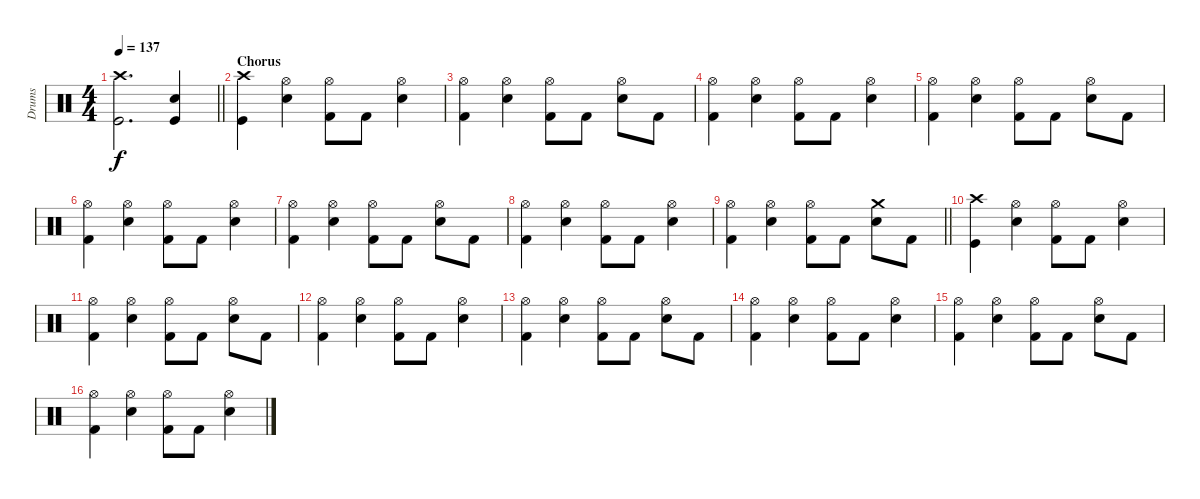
\track ("Drums" "Drums") {instrument percussion}
\staff {score}
\articulation defaults
\ts (4 4)
\tempo 137
\clef neutral
\barLineRight lightlight
\ks c
("Crash high (hit)" "Kick (hit)").2{d dy f} ("Electric Snare (hit)" "Kick (hit)").4 |
\section ("" "Chorus")
("Crash high (hit)" "Kick (hit)").4 ("Hi-Hat (open)" "Electric Snare (hit)").4 ("Hi-Hat (open)" "Kick (hit) 2").8 "Kick (hit) 2".8 ("Hi-Hat (open)" "Electric Snare (hit)").4 |
("Hi-Hat (open)" "Kick (hit) 2").4 ("Hi-Hat (open)" "Electric Snare (hit)").4 ("Hi-Hat (open)" "Kick (hit) 2").8 "Kick (hit) 2".8 ("Hi-Hat (open)" "Electric Snare (hit)").8 "Kick (hit) 2".8 |
("Hi-Hat (open)" "Kick (hit) 2").4 ("Hi-Hat (open)" "Electric Snare (hit)").4 ("Hi-Hat (open)" "Kick (hit) 2").8 "Kick (hit) 2".8 ("Hi-Hat (open)" "Electric Snare (hit)").4 |
("Hi-Hat (open)" "Kick (hit) 2").4 ("Hi-Hat (open)" "Electric Snare (hit)").4 ("Hi-Hat (open)" "Kick (hit) 2").8 "Kick (hit) 2".8 ("Hi-Hat (open)" "Electric Snare (hit)").8 "Kick (hit) 2".8 |
("Hi-Hat (open)" "Kick (hit) 2").4 ("Hi-Hat (open)" "Electric Snare (hit)").4 ("Hi-Hat (open)" "Kick (hit) 2").8 "Kick (hit) 2".8 ("Hi-Hat (open)" "Electric Snare (hit)").4 |
("Hi-Hat (open)" "Kick (hit) 2").4 ("Hi-Hat (open)" "Electric Snare (hit)").4 ("Hi-Hat (open)" "Kick (hit) 2").8 "Kick (hit) 2".8 ("Hi-Hat (open)" "Electric Snare (hit)").8 "Kick (hit) 2".8 |
("Hi-Hat (open)" "Kick (hit) 2").4 ("Hi-Hat (open)" "Electric Snare (hit)").4 ("Hi-Hat (open)" "Kick (hit) 2").8 "Kick (hit) 2".8 ("Hi-Hat (open)" "Electric Snare (hit)").4 |
\barLineRight lightlight
("Hi-Hat (open)" "Kick (hit) 2").4 ("Hi-Hat (open)" "Electric Snare (hit)").4 ("Hi-Hat (open)" "Kick (hit) 2").8 "Kick (hit) 2".8 ("Crash medium (hit)" "Electric Snare (hit)").8 "Kick (hit) 2".8 |
("Crash high (hit)" "Kick (hit)").4 ("Hi-Hat (open)" "Electric Snare (hit)").4 ("Hi-Hat (open)" "Kick (hit) 2").8 "Kick (hit) 2".8 ("Hi-Hat (open)" "Electric Snare (hit)").4 |
("Hi-Hat (open)" "Kick (hit) 2").4 ("Hi-Hat (open)" "Electric Snare (hit)").4 ("Hi-Hat (open)" "Kick (hit) 2").8 "Kick (hit) 2".8 ("Hi-Hat (open)" "Electric Snare (hit)").8 "Kick (hit) 2".8 |
("Hi-Hat (open)" "Kick (hit) 2").4 ("Hi-Hat (open)" "Electric Snare (hit)").4 ("Hi-Hat (open)" "Kick (hit) 2").8 "Kick (hit) 2".8 ("Hi-Hat (open)" "Electric Snare (hit)").4 |
("Hi-Hat (open)" "Kick (hit) 2").4 ("Hi-Hat (open)" "Electric Snare (hit)").4 ("Hi-Hat (open)" "Kick (hit) 2").8 "Kick (hit) 2".8 ("Hi-Hat (open)" "Electric Snare (hit)").8 "Kick (hit) 2".8 |
("Hi-Hat (open)" "Kick (hit) 2").4 ("Hi-Hat (open)" "Electric Snare (hit)").4 ("Hi-Hat (open)" "Kick (hit) 2").8 "Kick (hit) 2".8 ("Hi-Hat (open)" "Electric Snare (hit)").4 |
("Hi-Hat (open)" "Kick (hit) 2").4 ("Hi-Hat (open)" "Electric Snare (hit)").4 ("Hi-Hat (open)" "Kick (hit) 2").8 "Kick (hit) 2".8 ("Hi-Hat (open)" "Electric Snare (hit)").8 "Kick (hit) 2".8 |
("Hi-Hat (open)" "Kick (hit) 2").4 ("Hi-Hat (open)" "Electric Snare (hit)").4 ("Hi-Hat (open)" "Kick (hit) 2").8 "Kick (hit) 2".8 ("Hi-Hat (open)" "Electric Snare (hit)").4
